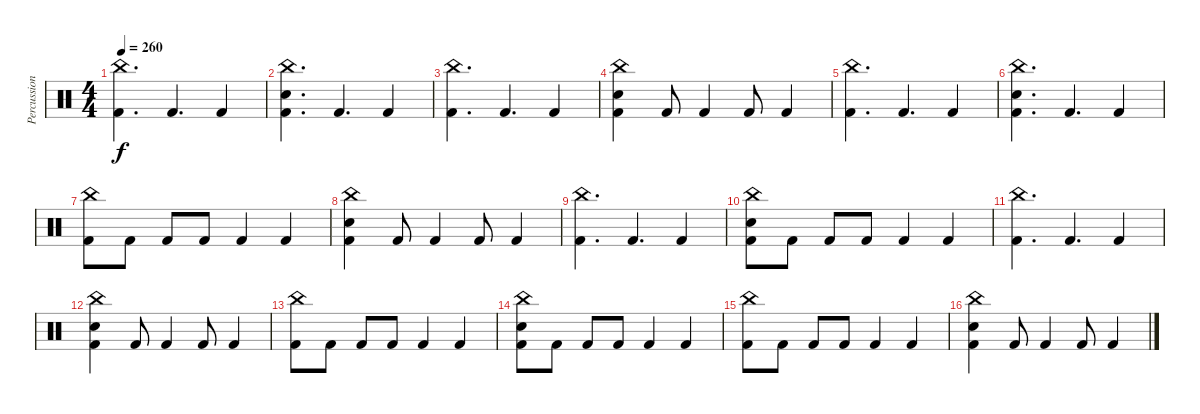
\track ("Percussion" "Percussion") {instrument percussion}
\staff {score}
\articulation defaults
\ts (4 4)
\tempo 260
\clef neutral
\ks c
("China (hit)" "Kick (hit) 2").4{d dy f} "Kick (hit) 2".4{d} "Kick (hit) 2".4 |
("China (hit)" "Electric Snare (hit)" "Kick (hit) 2").4{d} "Kick (hit) 2".4{d} "Kick (hit) 2".4 |
("China (hit)" "Kick (hit) 2").4{d} "Kick (hit) 2".4{d} "Kick (hit) 2".4 |
("China (hit)" "Electric Snare (hit)" "Kick (hit) 2").4 "Kick (hit) 2".8 "Kick (hit) 2".4 "Kick (hit) 2".8 "Kick (hit) 2".4 |
("China (hit)" "Kick (hit) 2").4{d} "Kick (hit) 2".4{d} "Kick (hit) 2".4 |
("China (hit)" "Electric Snare (hit)" "Kick (hit) 2").4{d} "Kick (hit) 2".4{d} "Kick (hit) 2".4 |
("China (hit)" "Kick (hit) 2").8 "Kick (hit) 2".8 "Kick (hit) 2".8 "Kick (hit) 2".8 "Kick (hit) 2".4 "Kick (hit) 2".4 |
("China (hit)" "Electric Snare (hit)" "Kick (hit) 2").4 "Kick (hit) 2".8 "Kick (hit) 2".4 "Kick (hit) 2".8 "Kick (hit) 2".4 |
("China (hit)" "Kick (hit) 2").4{d} "Kick (hit) 2".4{d} "Kick (hit) 2".4 |
("China (hit)" "Electric Snare (hit)" "Kick (hit) 2").8 "Kick (hit) 2".8 "Kick (hit) 2".8 "Kick (hit) 2".8 "Kick (hit) 2".4 "Kick (hit) 2".4 |
("China (hit)" "Kick (hit) 2").4{d} "Kick (hit) 2".4{d} "Kick (hit) 2".4 |
("China (hit)" "Electric Snare (hit)" "Kick (hit) 2").4 "Kick (hit) 2".8 "Kick (hit) 2".4 "Kick (hit) 2".8 "Kick (hit) 2".4 |
("China (hit)" "Kick (hit) 2").8 "Kick (hit) 2".8 "Kick (hit) 2".8 "Kick (hit) 2".8 "Kick (hit) 2".4 "Kick (hit) 2".4 |
("China (hit)" "Electric Snare (hit)" "Kick (hit) 2").8 "Kick (hit) 2".8 "Kick (hit) 2".8 "Kick (hit) 2".8 "Kick (hit) 2".4 "Kick (hit) 2".4 |
("China (hit)" "Kick (hit) 2").8 "Kick (hit) 2".8 "Kick (hit) 2".8 "Kick (hit) 2".8 "Kick (hit) 2".4 "Kick (hit) 2".4 |
("China (hit)" "Electric Snare (hit)" "Kick (hit) 2").4 "Kick (hit) 2".8 "Kick (hit) 2".4 "Kick (hit) 2".8 "Kick (hit) 2".4
